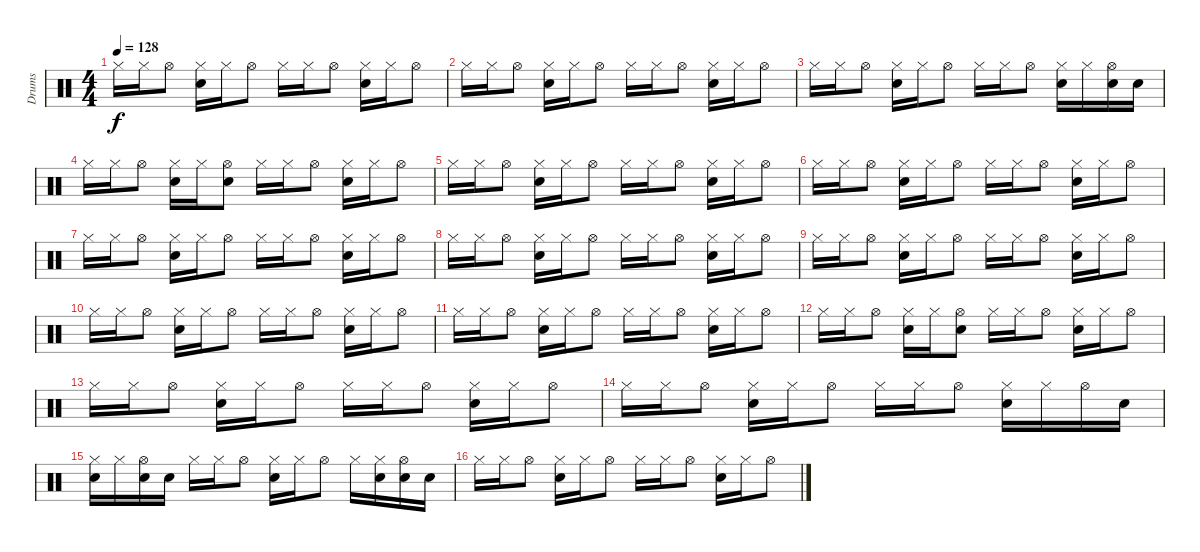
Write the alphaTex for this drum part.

\track ("Drums" "Drums") {instrument percussion}
\staff {score}
\articulation defaults
\ts (4 4)
\tempo 128
\clef neutral
\ks c "Hi-Hat (closed)".16{dy f} "Hi-Hat (closed)".16 "Hi-Hat (open)".8
("Hi-Hat (closed)" "Electric Snare (hit)").16 "Hi-Hat (closed)".16 "Hi-Hat (open)".8 "Hi-Hat (closed)".16 "Hi-Hat (closed)".16 "Hi-Hat (open)".8 ("Hi-Hat (closed)" "Electric Snare (hit)").16 "Hi-Hat (closed)".16 "Hi-Hat (open)".8 |
"Hi-Hat (closed)".16 "Hi-Hat (closed)".16 "Hi-Hat (open)".8 ("Hi-Hat (closed)" "Electric Snare (hit)").16 "Hi-Hat (closed)".16 "Hi-Hat (open)".8 "Hi-Hat (closed)".16 "Hi-Hat (closed)".16 "Hi-Hat (open)".8 ("Hi-Hat (closed)" "Electric Snare (hit)").16 "Hi-Hat (closed)".16 "Hi-Hat (open)".8 |
"Hi-Hat (closed)".16 "Hi-Hat (closed)".16 "Hi-Hat (open)".8 ("Hi-Hat (closed)" "Electric Snare (hit)").16 "Hi-Hat (closed)".16 "Hi-Hat (open)".8 "Hi-Hat (closed)".16 "Hi-Hat (closed)".16 "Hi-Hat (open)".8 ("Hi-Hat (closed)" "Electric Snare (hit)").16 "Hi-Hat (closed)".16 ("Hi-Hat (open)" "Electric Snare (hit)").16 "Electric Snare (hit)".16 |
"Hi-Hat (closed)".16 "Hi-Hat (closed)".16 "Hi-Hat (open)".8 ("Hi-Hat (closed)" "Electric Snare (hit)").16 "Hi-Hat (closed)".16 ("Hi-Hat (open)" "Electric Snare (hit)").8 "Hi-Hat (closed)".16 "Hi-Hat (closed)".16 "Hi-Hat (open)".8 ("Hi-Hat (closed)" "Electric Snare (hit)").16 "Hi-Hat (closed)".16 "Hi-Hat (open)".8 |
"Hi-Hat (closed)".16 "Hi-Hat (closed)".16 "Hi-Hat (open)".8 ("Hi-Hat (closed)" "Electric Snare (hit)").16 "Hi-Hat (closed)".16 "Hi-Hat (open)".8 "Hi-Hat (closed)".16 "Hi-Hat (closed)".16 "Hi-Hat (open)".8 ("Hi-Hat (closed)" "Electric Snare (hit)").16 "Hi-Hat (closed)".16 "Hi-Hat (open)".8 |
"Hi-Hat (closed)".16 "Hi-Hat (closed)".16 "Hi-Hat (open)".8 ("Hi-Hat (closed)" "Electric Snare (hit)").16 "Hi-Hat (closed)".16 "Hi-Hat (open)".8 "Hi-Hat (closed)".16 "Hi-Hat (closed)".16 "Hi-Hat (open)".8 ("Hi-Hat (closed)" "Electric Snare (hit)").16 "Hi-Hat (closed)".16 "Hi-Hat (open)".8 |
"Hi-Hat (closed)".16 "Hi-Hat (closed)".16 "Hi-Hat (open)".8 ("Hi-Hat (closed)" "Electric Snare (hit)").16 "Hi-Hat (closed)".16 "Hi-Hat (open)".8 "Hi-Hat (closed)".16 "Hi-Hat (closed)".16 "Hi-Hat (open)".8 ("Hi-Hat (closed)" "Electric Snare (hit)").16 "Hi-Hat (closed)".16 "Hi-Hat (open)".8 |
"Hi-Hat (closed)".16 "Hi-Hat (closed)".16 "Hi-Hat (open)".8 ("Hi-Hat (closed)" "Electric Snare (hit)").16 "Hi-Hat (closed)".16 "Hi-Hat (open)".8 "Hi-Hat (closed)".16 "Hi-Hat (closed)".16 "Hi-Hat (open)".8 ("Hi-Hat (closed)" "Electric Snare (hit)").16 "Hi-Hat (closed)".16 "Hi-Hat (open)".8 |
"Hi-Hat (closed)".16 "Hi-Hat (closed)".16 "Hi-Hat (open)".8 ("Hi-Hat (closed)" "Electric Snare (hit)").16 "Hi-Hat (closed)".16 "Hi-Hat (open)".8 "Hi-Hat (closed)".16 "Hi-Hat (closed)".16 "Hi-Hat (open)".8 ("Hi-Hat (closed)" "Electric Snare (hit)").16 "Hi-Hat (closed)".16 "Hi-Hat (open)".8 |
"Hi-Hat (closed)".16 "Hi-Hat (closed)".16 "Hi-Hat (open)".8 ("Hi-Hat (closed)" "Electric Snare (hit)").16 "Hi-Hat (closed)".16 "Hi-Hat (open)".8 "Hi-Hat (closed)".16 "Hi-Hat (closed)".16 "Hi-Hat (open)".8 ("Hi-Hat (closed)" "Electric Snare (hit)").16 "Hi-Hat (closed)".16 "Hi-Hat (open)".8 |
"Hi-Hat (closed)".16 "Hi-Hat (closed)".16 "Hi-Hat (open)".8 ("Hi-Hat (closed)" "Electric Snare (hit)").16 "Hi-Hat (closed)".16 "Hi-Hat (open)".8 "Hi-Hat (closed)".16 "Hi-Hat (closed)".16 "Hi-Hat (open)".8 ("Hi-Hat (closed)" "Electric Snare (hit)").16 "Hi-Hat (closed)".16 "Hi-Hat (open)".8 |
"Hi-Hat (closed)".16 "Hi-Hat (closed)".16 "Hi-Hat (open)".8 ("Hi-Hat (closed)" "Electric Snare (hit)").16 "Hi-Hat (closed)".16 ("Hi-Hat (open)" "Electric Snare (hit)").8 "Hi-Hat (closed)".16 "Hi-Hat (closed)".16 "Hi-Hat (open)".8 ("Hi-Hat (closed)" "Electric Snare (hit)").16 "Hi-Hat (closed)".16 "Hi-Hat (open)".8 |
"Hi-Hat (closed)".16 "Hi-Hat (closed)".16 "Hi-Hat (open)".8 ("Hi-Hat (closed)" "Electric Snare (hit)").16 "Hi-Hat (closed)".16 "Hi-Hat (open)".8 "Hi-Hat (closed)".16 "Hi-Hat (closed)".16 "Hi-Hat (open)".8 ("Hi-Hat (closed)" "Electric Snare (hit)").16 "Hi-Hat (closed)".16 "Hi-Hat (open)".8 |
"Hi-Hat (closed)".16 "Hi-Hat (closed)".16 "Hi-Hat (open)".8 ("Hi-Hat (closed)" "Electric Snare (hit)").16 "Hi-Hat (closed)".16 "Hi-Hat (open)".8 "Hi-Hat (closed)".16 "Hi-Hat (closed)".16 "Hi-Hat (open)".8 ("Hi-Hat (closed)" "Electric Snare (hit)").16 "Hi-Hat (closed)".16 "Hi-Hat (open)".16 "Electric Snare (hit)".16 |
("Hi-Hat (closed)" "Electric Snare (hit)").16 "Hi-Hat (closed)".16 ("Hi-Hat (open)" "Electric Snare (hit)").16 "Electric Snare (hit)".16 "Hi-Hat (closed)".16 "Hi-Hat (closed)".16 "Hi-Hat (open)".8 ("Hi-Hat (closed)" "Electric Snare (hit)").16 "Hi-Hat (closed)".16 "Hi-Hat (open)".8 "Hi-Hat (closed)".16 ("Hi-Hat (closed)" "Electric Snare (hit)").16 ("Hi-Hat (open)" "Electric Snare (hit)").16 "Electric Snare (hit)".16 |
"Hi-Hat (closed)".16 "Hi-Hat (closed)".16 "Hi-Hat (open)".8 ("Hi-Hat (closed)" "Electric Snare (hit)").16 "Hi-Hat (closed)".16 "Hi-Hat (open)".8 "Hi-Hat (closed)".16 "Hi-Hat (closed)".16 "Hi-Hat (open)".8 ("Hi-Hat (closed)" "Electric Snare (hit)").16 "Hi-Hat (closed)".16 "Hi-Hat (open)".8
